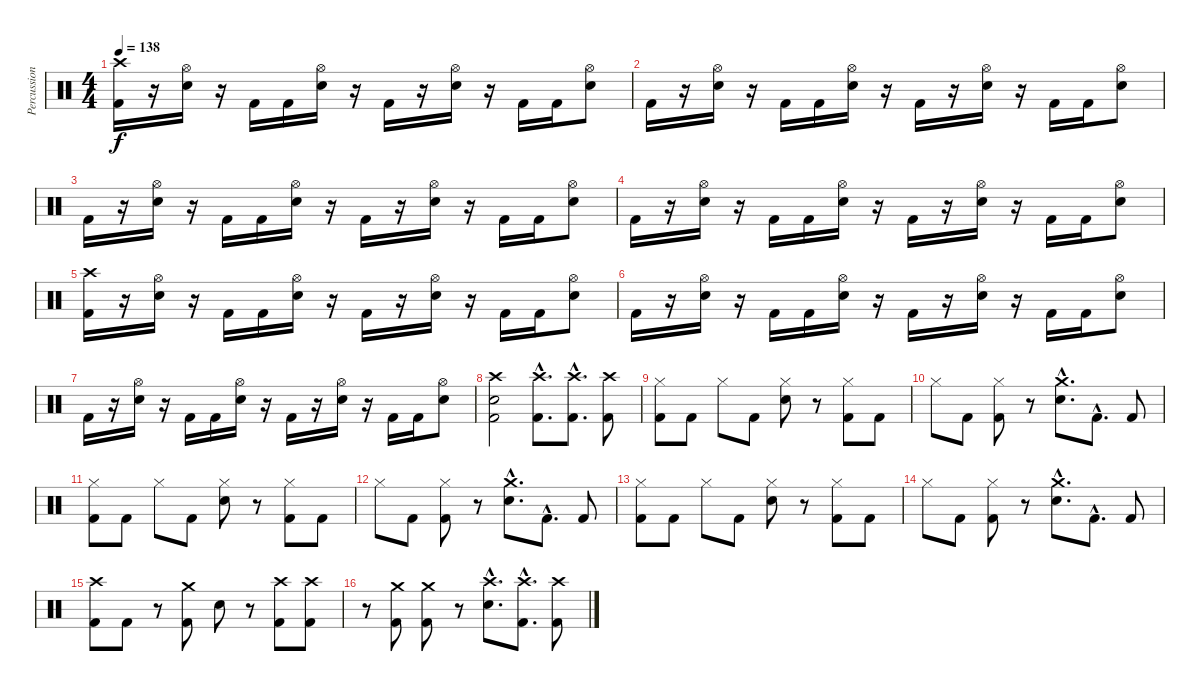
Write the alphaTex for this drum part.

\track ("Percussion" "Percussion") {instrument percussion}
\staff {score}
\articulation defaults
\ts (4 4)
\tempo 138
\clef neutral
\ks c
("Crash high (hit)" "Kick (hit) 2").16{dy f} r.16 ("Hi-Hat (open)" "Electric Snare (hit)").16 r.16 "Kick (hit) 2".16 "Kick (hit) 2".16 ("Hi-Hat (open)" "Electric Snare (hit)").16 r.16 "Kick (hit) 2".16 r.16 ("Hi-Hat (open)" "Electric Snare (hit)").16 r.16 "Kick (hit) 2".16 "Kick (hit) 2".16 ("Hi-Hat (open)" "Electric Snare (hit)").8 |
"Kick (hit) 2".16 r.16 ("Hi-Hat (open)" "Electric Snare (hit)").16 r.16 "Kick (hit) 2".16 "Kick (hit) 2".16 ("Hi-Hat (open)" "Electric Snare (hit)").16 r.16 "Kick (hit) 2".16 r.16 ("Hi-Hat (open)" "Electric Snare (hit)").16 r.16 "Kick (hit) 2".16 "Kick (hit) 2".16 ("Hi-Hat (open)" "Electric Snare (hit)").8 |
"Kick (hit) 2".16 r.16 ("Hi-Hat (open)" "Electric Snare (hit)").16 r.16 "Kick (hit) 2".16 "Kick (hit) 2".16 ("Hi-Hat (open)" "Electric Snare (hit)").16 r.16 "Kick (hit) 2".16 r.16 ("Hi-Hat (open)" "Electric Snare (hit)").16 r.16 "Kick (hit) 2".16 "Kick (hit) 2".16 ("Hi-Hat (open)" "Electric Snare (hit)").8 |
"Kick (hit) 2".16 r.16 ("Hi-Hat (open)" "Electric Snare (hit)").16 r.16 "Kick (hit) 2".16 "Kick (hit) 2".16 ("Hi-Hat (open)" "Electric Snare (hit)").16 r.16 "Kick (hit) 2".16 r.16 ("Hi-Hat (open)" "Electric Snare (hit)").16 r.16 "Kick (hit) 2".16 "Kick (hit) 2".16 ("Hi-Hat (open)" "Electric Snare (hit)").8 |
("Crash high (hit)" "Kick (hit) 2").16 r.16 ("Hi-Hat (open)" "Electric Snare (hit)").16 r.16 "Kick (hit) 2".16 "Kick (hit) 2".16 ("Hi-Hat (open)" "Electric Snare (hit)").16 r.16 "Kick (hit) 2".16 r.16 ("Hi-Hat (open)" "Electric Snare (hit)").16 r.16 "Kick (hit) 2".16 "Kick (hit) 2".16 ("Hi-Hat (open)" "Electric Snare (hit)").8 |
"Kick (hit) 2".16 r.16 ("Hi-Hat (open)" "Electric Snare (hit)").16 r.16 "Kick (hit) 2".16 "Kick (hit) 2".16 ("Hi-Hat (open)" "Electric Snare (hit)").16 r.16 "Kick (hit) 2".16 r.16 ("Hi-Hat (open)" "Electric Snare (hit)").16 r.16 "Kick (hit) 2".16 "Kick (hit) 2".16 ("Hi-Hat (open)" "Electric Snare (hit)").8 |
"Kick (hit) 2".16 r.16 ("Hi-Hat (open)" "Electric Snare (hit)").16 r.16 "Kick (hit) 2".16 "Kick (hit) 2".16 ("Hi-Hat (open)" "Electric Snare (hit)").16 r.16 "Kick (hit) 2".16 r.16 ("Hi-Hat (open)" "Electric Snare (hit)").16 r.16 "Kick (hit) 2".16 "Kick (hit) 2".16 ("Hi-Hat (open)" "Electric Snare (hit)").8 |
("Crash high (hit)" "Electric Snare (hit)" "Kick (hit) 2").2 ("Crash high (hit)"{hac} "Kick (hit) 2"{hac}).8{d} ("Crash high (hit)"{hac} "Kick (hit) 2"{hac}).8{d} ("Crash high (hit)" "Kick (hit) 2").8 |
("Hi-Hat (closed)" "Kick (hit) 2").8 "Kick (hit) 2".8 "Hi-Hat (closed)".8 "Kick (hit) 2".8 ("Hi-Hat (closed)" "Electric Snare (hit)").8 r.8 ("Hi-Hat (closed)" "Kick (hit) 2").8 "Kick (hit) 2".8 |
"Hi-Hat (closed)".8 "Kick (hit) 2".8 ("Hi-Hat (closed)" "Kick (hit) 2").8 r.8 ("Crash medium (hit)"{hac} "Electric Snare (hit)"{hac}).8{d} "Kick (hit) 2"{hac}.8{d} "Kick (hit) 2".8 |
("Hi-Hat (closed)" "Kick (hit) 2").8 "Kick (hit) 2".8 "Hi-Hat (closed)".8 "Kick (hit) 2".8 ("Hi-Hat (closed)" "Electric Snare (hit)").8 r.8 ("Hi-Hat (closed)" "Kick (hit) 2").8 "Kick (hit) 2".8 |
"Hi-Hat (closed)".8 "Kick (hit) 2".8 ("Hi-Hat (closed)" "Kick (hit) 2").8 r.8 ("Crash medium (hit)"{hac} "Electric Snare (hit)"{hac}).8{d} "Kick (hit) 2"{hac}.8{d} "Kick (hit) 2".8 |
("Hi-Hat (closed)" "Kick (hit) 2").8 "Kick (hit) 2".8 "Hi-Hat (closed)".8 "Kick (hit) 2".8 ("Hi-Hat (closed)" "Electric Snare (hit)").8 r.8 ("Hi-Hat (closed)" "Kick (hit) 2").8 "Kick (hit) 2".8 |
"Hi-Hat (closed)".8 "Kick (hit) 2".8 ("Hi-Hat (closed)" "Kick (hit) 2").8 r.8 ("Crash medium (hit)"{hac} "Electric Snare (hit)"{hac}).8{d} "Kick (hit) 2"{hac}.8{d} "Kick (hit) 2".8 |
("Crash high (hit)" "Kick (hit) 2").8 "Kick (hit) 2".8 r.8 ("Crash medium (hit)" "Kick (hit) 2").8 "Electric Snare (hit)".8 r.8 ("Crash high (hit)" "Kick (hit) 2").8 ("Crash high (hit)" "Kick (hit) 2").8 |
r.8 ("Crash medium (hit)" "Kick (hit) 2").8 ("Crash medium (hit)" "Kick (hit) 2").8 r.8 ("Crash high (hit)"{hac} "Electric Snare (hit)"{hac}).8{d} ("Crash high (hit)"{hac} "Kick (hit) 2"{hac}).8{d} ("Crash high (hit)" "Kick (hit) 2").8
